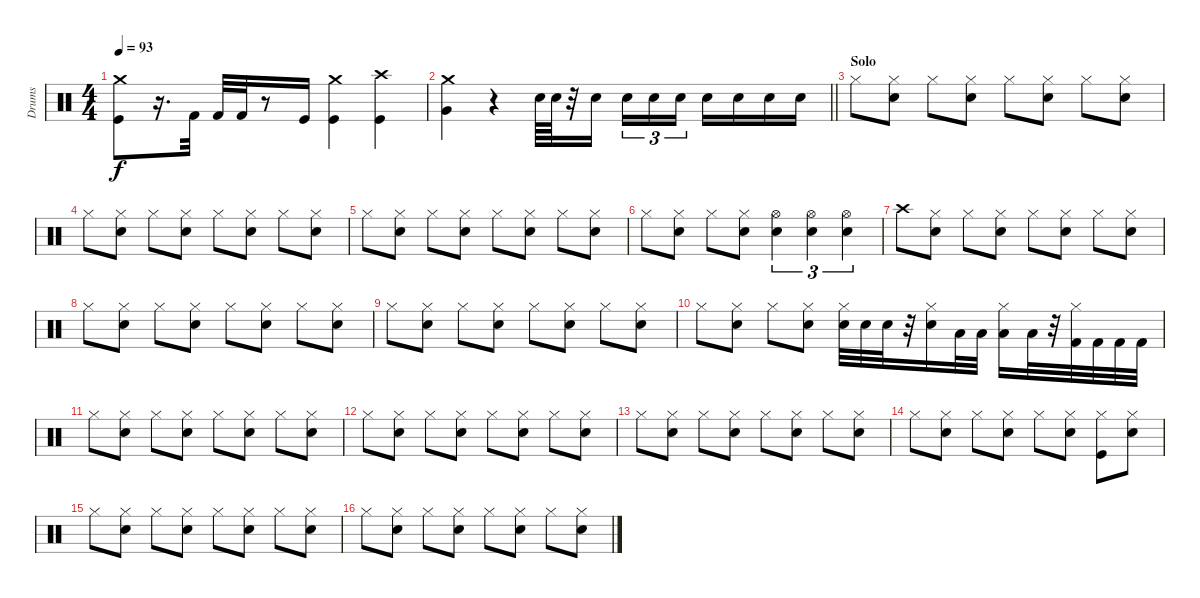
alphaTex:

\track ("Drums" "Drums") {instrument percussion}
\staff {score}
\articulation defaults
\ts (4 4)
\tempo 93
\clef neutral
\ks c
("Kick (hit)" "Crash medium (hit)").8{dy f} r.16{d} "Kick (hit) 2".32 "Kick (hit) 2".32 "Kick (hit) 2".32 r.8 "Kick (hit)".16 ("Kick (hit)" "Crash medium (hit)").4 ("Kick (hit)" "Crash high (hit)").4 |
\barLineRight lightlight
("Crash medium (hit)" "Very Low Tom (hit)").4 r.4 "Electric Snare (hit)".64 "Electric Snare (hit)".64 r.32 "Electric Snare (hit)".16{beam splitsecondary} "Electric Snare (hit)".16{tu (3 2)} "Electric Snare (hit)".16{tu (3 2)} "Electric Snare (hit)".16{tu (3 2)} "Electric Snare (hit)".16 "Electric Snare (hit)".16 "Electric Snare (hit)".16 "Electric Snare (hit)".16 |
\section ("" "Solo")
"Hi-Hat (closed)".8 ("Hi-Hat (closed)" "Snare (hit) 2").8 "Hi-Hat (closed)".8 ("Hi-Hat (closed)" "Snare (hit) 2").8 "Hi-Hat (closed)".8 ("Hi-Hat (closed)" "Snare (hit) 2").8 "Hi-Hat (closed)".8 ("Hi-Hat (closed)" "Snare (hit) 2").8 |
"Hi-Hat (closed)".8 ("Hi-Hat (closed)" "Snare (hit) 2").8 "Hi-Hat (closed)".8 ("Hi-Hat (closed)" "Snare (hit) 2").8 "Hi-Hat (closed)".8 ("Hi-Hat (closed)" "Snare (hit) 2").8 "Hi-Hat (closed)".8 ("Hi-Hat (closed)" "Snare (hit) 2").8 |
"Hi-Hat (closed)".8 ("Hi-Hat (closed)" "Snare (hit) 2").8 "Hi-Hat (closed)".8 ("Hi-Hat (closed)" "Snare (hit) 2").8 "Hi-Hat (closed)".8 ("Hi-Hat (closed)" "Snare (hit) 2").8 "Hi-Hat (closed)".8 ("Hi-Hat (closed)" "Snare (hit) 2").8 |
"Hi-Hat (closed)".8 ("Hi-Hat (closed)" "Snare (hit) 2").8 "Hi-Hat (closed)".8 ("Hi-Hat (closed)" "Snare (hit) 2").8 ("Hi-Hat (open)" "Electric Snare (hit)").4{tu (3 2)} ("Hi-Hat (open)" "Electric Snare (hit)").4{tu (3 2)} ("Hi-Hat (open)" "Electric Snare (hit)").4{tu (3 2)} |
"Crash high (hit)".8 ("Hi-Hat (closed)" "Snare (hit) 2").8 "Hi-Hat (closed)".8 ("Hi-Hat (closed)" "Snare (hit) 2").8 "Hi-Hat (closed)".8 ("Hi-Hat (closed)" "Snare (hit) 2").8 "Hi-Hat (closed)".8 ("Hi-Hat (closed)" "Snare (hit) 2").8 |
"Hi-Hat (closed)".8 ("Hi-Hat (closed)" "Snare (hit) 2").8 "Hi-Hat (closed)".8 ("Hi-Hat (closed)" "Snare (hit) 2").8 "Hi-Hat (closed)".8 ("Hi-Hat (closed)" "Snare (hit) 2").8 "Hi-Hat (closed)".8 ("Hi-Hat (closed)" "Snare (hit) 2").8 |
"Hi-Hat (closed)".8 ("Hi-Hat (closed)" "Snare (hit) 2").8 "Hi-Hat (closed)".8 ("Hi-Hat (closed)" "Snare (hit) 2").8 "Hi-Hat (closed)".8 ("Hi-Hat (closed)" "Snare (hit) 2").8 "Hi-Hat (closed)".8 ("Hi-Hat (closed)" "Snare (hit) 2").8 |
"Hi-Hat (closed)".8 ("Hi-Hat (closed)" "Snare (hit) 2").8 "Hi-Hat (closed)".8 ("Hi-Hat (closed)" "Snare (hit) 2").8 ("Hi-Hat (closed)" "Snare (hit) 2").32 "Snare (hit) 2".32 "Snare (hit) 2".32 r.32 ("Hi-Hat (closed)" "Snare (hit) 2").16 "Low Floor Tom (hit)".32 "Low Floor Tom (hit)".32 ("Hi-Hat (closed)" "Low Floor Tom (hit)").16 "Low Floor Tom (hit)".32 r.32 ("Hi-Hat (closed)" "Kick (hit) 2").32 "Kick (hit) 2".32 "Kick (hit) 2".32 "Kick (hit) 2".32 |
"Hi-Hat (closed)".8 ("Hi-Hat (closed)" "Snare (hit) 2").8 "Hi-Hat (closed)".8 ("Hi-Hat (closed)" "Snare (hit) 2").8 "Hi-Hat (closed)".8 ("Hi-Hat (closed)" "Snare (hit) 2").8 "Hi-Hat (closed)".8 ("Hi-Hat (closed)" "Snare (hit) 2").8 |
"Hi-Hat (closed)".8 ("Hi-Hat (closed)" "Snare (hit) 2").8 "Hi-Hat (closed)".8 ("Hi-Hat (closed)" "Snare (hit) 2").8 "Hi-Hat (closed)".8 ("Hi-Hat (closed)" "Snare (hit) 2").8 "Hi-Hat (closed)".8 ("Hi-Hat (closed)" "Snare (hit) 2").8 |
"Hi-Hat (closed)".8 ("Hi-Hat (closed)" "Snare (hit) 2").8 "Hi-Hat (closed)".8 ("Hi-Hat (closed)" "Snare (hit) 2").8 "Hi-Hat (closed)".8 ("Hi-Hat (closed)" "Snare (hit) 2").8 "Hi-Hat (closed)".8 ("Hi-Hat (closed)" "Snare (hit) 2").8 |
"Hi-Hat (closed)".8 ("Hi-Hat (closed)" "Snare (hit) 2").8 "Hi-Hat (closed)".8 ("Hi-Hat (closed)" "Snare (hit) 2").8 "Hi-Hat (closed)".8 ("Hi-Hat (closed)" "Snare (hit) 2").8 ("Hi-Hat (closed)" "Kick (hit)").8 ("Hi-Hat (closed)" "Snare (hit) 2").8 |
"Hi-Hat (closed)".8 ("Hi-Hat (closed)" "Snare (hit) 2").8 "Hi-Hat (closed)".8 ("Hi-Hat (closed)" "Snare (hit) 2").8 "Hi-Hat (closed)".8 ("Hi-Hat (closed)" "Snare (hit) 2").8 "Hi-Hat (closed)".8 ("Hi-Hat (closed)" "Snare (hit) 2").8 |
"Hi-Hat (closed)".8 ("Hi-Hat (closed)" "Snare (hit) 2").8 "Hi-Hat (closed)".8 ("Hi-Hat (closed)" "Snare (hit) 2").8 "Hi-Hat (closed)".8 ("Hi-Hat (closed)" "Snare (hit) 2").8 "Hi-Hat (closed)".8 ("Hi-Hat (closed)" "Snare (hit) 2").8
